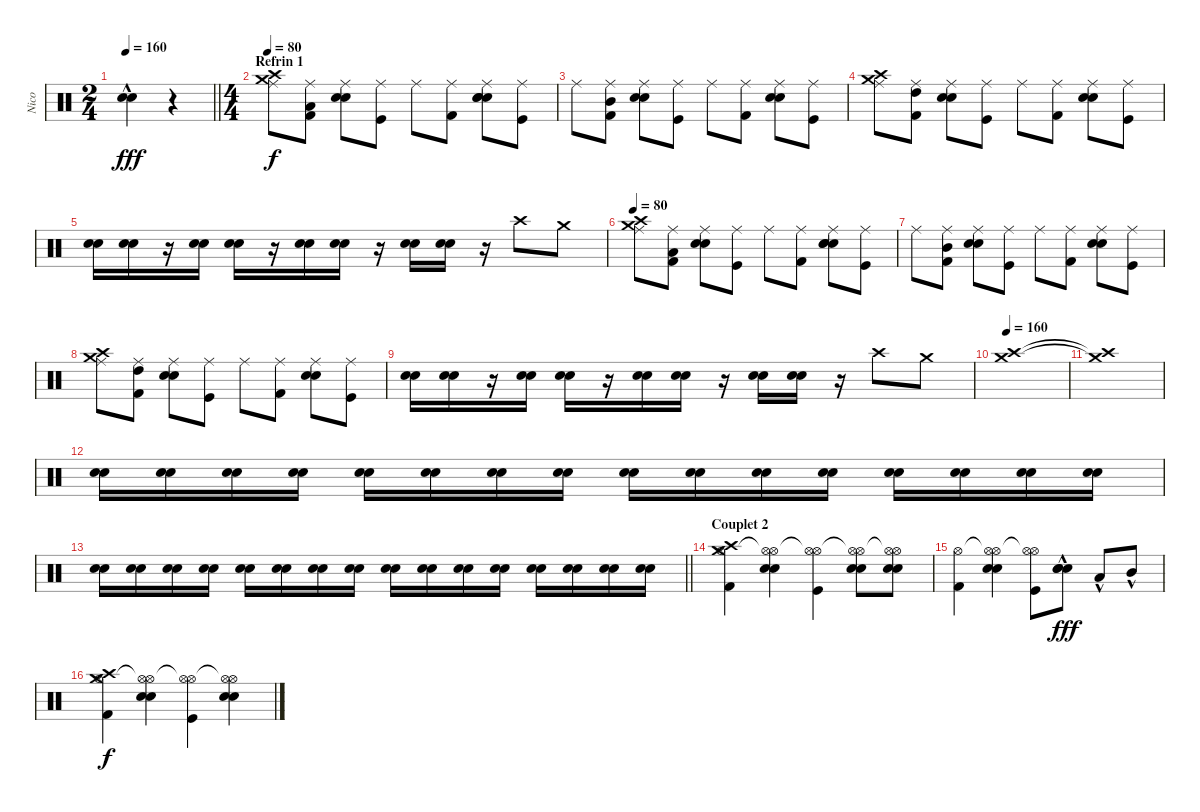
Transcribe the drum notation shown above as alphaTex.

\track ("Nico" "Nico") {instrument percussion}
\staff {score}
\articulation defaults
\ts (2 4)
\tempo 160
\clef neutral
\barLineRight lightlight
\ks c
("Electric Snare (hit)"{hac} "Electric Snare (hit)"{hac}).4{bd 480 dy fff volume 16} r.4 |
\ts (4 4)
\section ("" "Refrin 1")
\tempo 80
("Ride (middle)" "Crash medium (hit)" "Crash high (hit)").8{dy f volume 13} ("Ride (middle)" "Low Tom (hit)" "Kick (hit) 2").8 ("Ride (middle)" "Snare (hit) 2" "Electric Snare (hit)").8 ("Ride (middle)" "Kick (hit)").8 "Ride (middle)".8 ("Ride (middle)" "Kick (hit) 2").8 ("Ride (middle)" "Snare (hit) 2" "Electric Snare (hit)" "Snare (hit) 2").8 ("Ride (middle)" "Kick (hit)").8 |
"Ride (middle)".8{volume 13} ("Ride (middle)" "Mid Tom (hit)" "Kick (hit) 2").8 ("Ride (middle)" "Snare (hit) 2" "Electric Snare (hit)").8 ("Ride (middle)" "Kick (hit)").8 "Ride (middle)".8 ("Ride (middle)" "Kick (hit) 2").8 ("Ride (middle)" "Electric Snare (hit)" "Snare (hit) 2").8 ("Ride (middle)" "Kick (hit)").8 |
("Ride (middle)" "Crash medium (hit)" "Crash high (hit)").8{volume 13} ("Ride (middle)" "High Tom (hit)" "Kick (hit) 2").8 ("Ride (middle)" "Electric Snare (hit)" "Snare (hit) 2").8 ("Ride (middle)" "Kick (hit)").8 "Ride (middle)".8 ("Ride (middle)" "Kick (hit) 2").8 ("Ride (middle)" "Snare (hit) 2" "Electric Snare (hit)").8 ("Ride (middle)" "Kick (hit)").8 |
("Snare (hit) 2" "Electric Snare (hit)").16 ("Snare (hit) 2" "Electric Snare (hit)").16 r.16 ("Snare (hit) 2" "Electric Snare (hit)").16 ("Snare (hit) 2" "Electric Snare (hit)").16 r.16 ("Snare (hit) 2" "Electric Snare (hit)").16 ("Snare (hit) 2" "Electric Snare (hit)").16 r.16 ("Snare (hit) 2" "Electric Snare (hit)").16 ("Snare (hit) 2" "Electric Snare (hit)").16 r.16 "Crash high (hit)".8 "Crash medium (hit)".8 |
\tempo 80
("Ride (middle)" "Crash high (hit)" "Crash medium (hit)").8{volume 13} ("Ride (middle)" "Low Tom (hit)" "Kick (hit) 2").8 ("Ride (middle)" "Snare (hit) 2" "Electric Snare (hit)").8 ("Ride (middle)" "Kick (hit)").8 "Ride (middle)".8 ("Ride (middle)" "Kick (hit) 2").8 ("Ride (middle)" "Snare (hit) 2" "Electric Snare (hit)" "Snare (hit) 2").8 ("Ride (middle)" "Kick (hit)").8 |
"Ride (middle)".8{volume 13} ("Ride (middle)" "Mid Tom (hit)" "Kick (hit) 2").8 ("Ride (middle)" "Snare (hit) 2" "Electric Snare (hit)").8 ("Ride (middle)" "Kick (hit)").8 "Ride (middle)".8 ("Ride (middle)" "Kick (hit) 2").8 ("Ride (middle)" "Electric Snare (hit)" "Snare (hit) 2").8 ("Ride (middle)" "Kick (hit)").8 |
("Ride (middle)" "Crash high (hit)" "Crash medium (hit)").8{volume 13} ("Ride (middle)" "High Tom (hit)" "Kick (hit) 2").8 ("Ride (middle)" "Electric Snare (hit)" "Snare (hit) 2").8 ("Ride (middle)" "Kick (hit)").8 "Ride (middle)".8 ("Ride (middle)" "Kick (hit) 2").8 ("Ride (middle)" "Snare (hit) 2" "Electric Snare (hit)").8 ("Ride (middle)" "Kick (hit)").8 |
("Snare (hit) 2" "Electric Snare (hit)").16 ("Snare (hit) 2" "Electric Snare (hit)").16 r.16 ("Snare (hit) 2" "Electric Snare (hit)").16 ("Snare (hit) 2" "Electric Snare (hit)").16 r.16 ("Snare (hit) 2" "Electric Snare (hit)").16 ("Snare (hit) 2" "Electric Snare (hit)").16 r.16 ("Snare (hit) 2" "Electric Snare (hit)").16 ("Snare (hit) 2" "Electric Snare (hit)").16 r.16 "Crash high (hit)".8 "Crash medium (hit)".8 |
\tempo 160
("Crash high (hit)" "Crash medium (hit)").1 |
("Crash high (hit)"{t} "Crash medium (hit)"{t}).1 |
("Snare (hit) 2" "Electric Snare (hit)").16 ("Snare (hit) 2" "Electric Snare (hit)").16 ("Snare (hit) 2" "Electric Snare (hit)").16 ("Snare (hit) 2" "Electric Snare (hit)").16 ("Snare (hit) 2" "Electric Snare (hit)").16 ("Snare (hit) 2" "Electric Snare (hit)").16 ("Snare (hit) 2" "Electric Snare (hit)").16 ("Snare (hit) 2" "Electric Snare (hit)").16 ("Snare (hit) 2" "Electric Snare (hit)").16 ("Snare (hit) 2" "Electric Snare (hit)").16 ("Snare (hit) 2" "Electric Snare (hit)").16 ("Snare (hit) 2" "Electric Snare (hit)").16 ("Snare (hit) 2" "Electric Snare (hit)").16 ("Snare (hit) 2" "Electric Snare (hit)").16 ("Snare (hit) 2" "Electric Snare (hit)").16 ("Snare (hit) 2" "Electric Snare (hit)").16 |
\barLineRight lightlight
("Snare (hit) 2" "Electric Snare (hit)").16 ("Snare (hit) 2" "Electric Snare (hit)").16 ("Snare (hit) 2" "Electric Snare (hit)").16 ("Snare (hit) 2" "Electric Snare (hit)").16 ("Snare (hit) 2" "Electric Snare (hit)").16 ("Snare (hit) 2" "Electric Snare (hit)").16 ("Snare (hit) 2" "Electric Snare (hit)").16 ("Snare (hit) 2" "Electric Snare (hit)").16 ("Snare (hit) 2" "Electric Snare (hit)").16 ("Snare (hit) 2" "Electric Snare (hit)").16 ("Snare (hit) 2" "Electric Snare (hit)").16 ("Snare (hit) 2" "Electric Snare (hit)").16 ("Snare (hit) 2" "Electric Snare (hit)").16 ("Snare (hit) 2" "Electric Snare (hit)").16 ("Snare (hit) 2" "Electric Snare (hit)").16 ("Snare (hit) 2" "Electric Snare (hit)").16 |
\section ("" "Couplet 2")
("Hi-Hat (open)" "Crash medium (hit)" "Crash high (hit)" "Kick (hit) 2").4 ("Hi-Hat (open)"{t} "Hi-Hat (open)" "Electric Snare (hit)" "Snare (hit) 2").4 ("Hi-Hat (open)" "Hi-Hat (open)"{t} "Kick (hit)").4 ("Hi-Hat (open)"{t} "Hi-Hat (open)" "Electric Snare (hit)" "Snare (hit) 2").8 ("Hi-Hat (open)"{t} "Hi-Hat (open)" "Electric Snare (hit)" "Snare (hit) 2").8 |
("Hi-Hat (open)" "Kick (hit) 2").4 ("Hi-Hat (open)"{t} "Hi-Hat (open)" "Electric Snare (hit)" "Snare (hit) 2").4 ("Hi-Hat (open)" "Hi-Hat (open)"{t} "Kick (hit)").8 ("Electric Snare (hit)"{hac} "Electric Snare (hit)"{hac} "Electric Snare (hit)"{hac}).8{bd 480 dy fff} "Low Tom (hit)"{hac}.8 "Mid Tom (hit)"{hac}.8 |
("Hi-Hat (open)" "Crash medium (hit)" "Crash high (hit)" "Kick (hit) 2").4{dy f} ("Hi-Hat (open)"{t} "Hi-Hat (open)" "Electric Snare (hit)" "Snare (hit) 2").4 ("Hi-Hat (open)" "Hi-Hat (open)"{t} "Kick (hit)").4 ("Hi-Hat (open)"{t} "Hi-Hat (open)" "Electric Snare (hit)" "Snare (hit) 2").4
